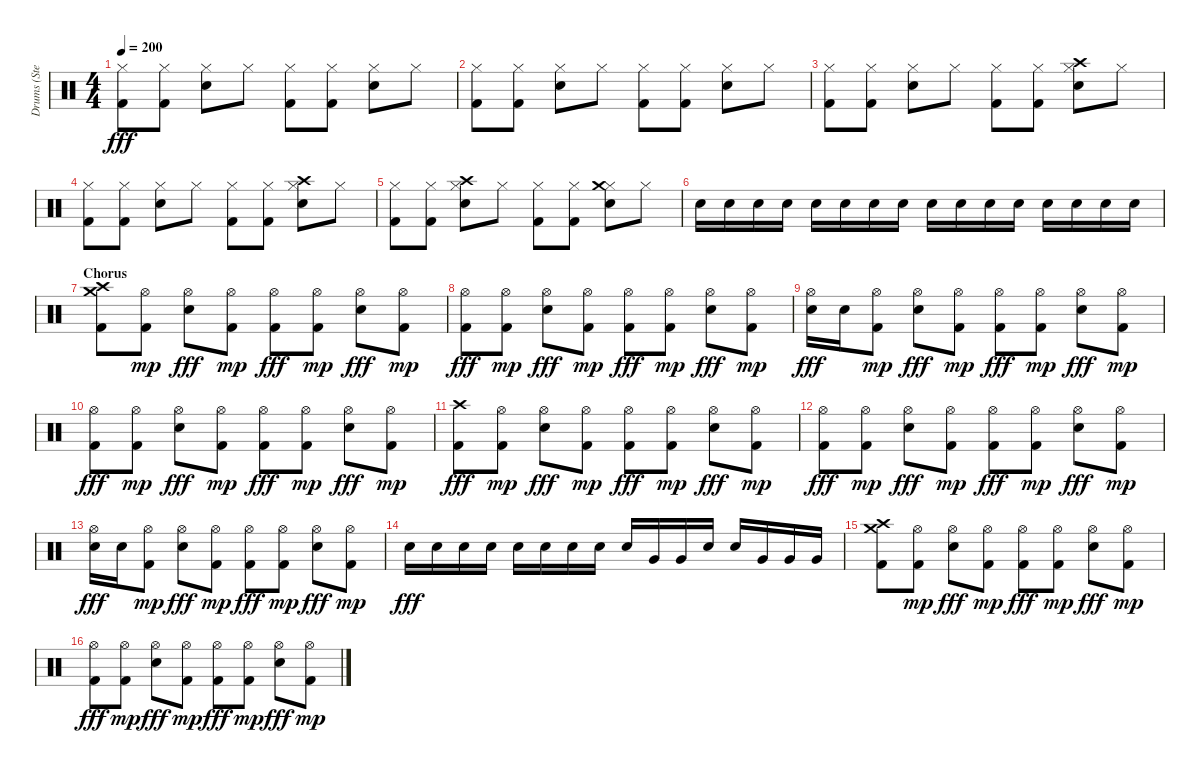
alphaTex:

\track ("Drums (Stevo32)" "Drums (Ste") {instrument percussion}
\staff {score}
\articulation defaults
\ts (4 4)
\tempo 200
\clef neutral
\ks c
("Kick (hit) 2" "Hi-Hat (closed)").8{dy fff} ("Kick (hit) 2" "Hi-Hat (closed)").8 ("Electric Snare (hit)" "Hi-Hat (closed)").8 "Hi-Hat (closed)".8 ("Kick (hit) 2" "Hi-Hat (closed)").8 ("Kick (hit) 2" "Hi-Hat (closed)").8 ("Electric Snare (hit)" "Hi-Hat (closed)").8 "Hi-Hat (closed)".8 |
("Kick (hit) 2" "Hi-Hat (closed)").8 ("Kick (hit) 2" "Hi-Hat (closed)").8 ("Electric Snare (hit)" "Hi-Hat (closed)").8 "Hi-Hat (closed)".8 ("Kick (hit) 2" "Hi-Hat (closed)").8 ("Kick (hit) 2" "Hi-Hat (closed)").8 ("Electric Snare (hit)" "Hi-Hat (closed)").8 "Hi-Hat (closed)".8 |
("Kick (hit) 2" "Hi-Hat (closed)").8 ("Kick (hit) 2" "Hi-Hat (closed)").8 ("Electric Snare (hit)" "Hi-Hat (closed)").8 "Hi-Hat (closed)".8 ("Kick (hit) 2" "Hi-Hat (closed)").8 ("Kick (hit) 2" "Hi-Hat (closed)").8 ("Electric Snare (hit)" "Hi-Hat (closed)" "Crash high (hit)").8 "Hi-Hat (closed)".8 |
("Kick (hit) 2" "Hi-Hat (closed)").8 ("Kick (hit) 2" "Hi-Hat (closed)").8 ("Electric Snare (hit)" "Hi-Hat (closed)").8 "Hi-Hat (closed)".8 ("Kick (hit) 2" "Hi-Hat (closed)").8 ("Kick (hit) 2" "Hi-Hat (closed)").8 ("Electric Snare (hit)" "Hi-Hat (closed)" "Crash high (hit)").8 "Hi-Hat (closed)".8 |
("Kick (hit) 2" "Hi-Hat (closed)").8 ("Kick (hit) 2" "Hi-Hat (closed)").8 ("Electric Snare (hit)" "Hi-Hat (closed)" "Crash high (hit)").8 "Hi-Hat (closed)".8 ("Kick (hit) 2" "Hi-Hat (closed)").8 ("Kick (hit) 2" "Hi-Hat (closed)").8 ("Electric Snare (hit)" "Hi-Hat (closed)" "Crash medium (hit)").8 "Hi-Hat (closed)".8 |
"Electric Snare (hit)".16 "Electric Snare (hit)".16 "Electric Snare (hit)".16 "Electric Snare (hit)".16 "Electric Snare (hit)".16 "Electric Snare (hit)".16 "Electric Snare (hit)".16 "Electric Snare (hit)".16 "Electric Snare (hit)".16 "Electric Snare (hit)".16 "Electric Snare (hit)".16 "Electric Snare (hit)".16 "Electric Snare (hit)".16 "Electric Snare (hit)".16 "Electric Snare (hit)".16 "Electric Snare (hit)".16 |
\section ("" "Chorus")
("Kick (hit) 2" "Crash high (hit)" "Crash medium (hit)").8 ("Kick (hit) 2" "Hi-Hat (open)").8{dy mp} ("Electric Snare (hit)" "Hi-Hat (open)").8{dy fff} ("Kick (hit) 2" "Hi-Hat (open)").8{dy mp} ("Kick (hit) 2" "Hi-Hat (open)").8{dy fff} ("Kick (hit) 2" "Hi-Hat (open)").8{dy mp} ("Electric Snare (hit)" "Hi-Hat (open)").8{dy fff} ("Kick (hit) 2" "Hi-Hat (open)").8{dy mp} |
("Kick (hit) 2" "Hi-Hat (open)").8{dy fff} ("Kick (hit) 2" "Hi-Hat (open)").8{dy mp} ("Electric Snare (hit)" "Hi-Hat (open)").8{dy fff} ("Kick (hit) 2" "Hi-Hat (open)").8{dy mp} ("Kick (hit) 2" "Hi-Hat (open)").8{dy fff} ("Kick (hit) 2" "Hi-Hat (open)").8{dy mp} ("Electric Snare (hit)" "Hi-Hat (open)").8{dy fff} ("Kick (hit) 2" "Hi-Hat (open)").8{dy mp} |
("Electric Snare (hit)" "Hi-Hat (open)").16{dy fff} "Electric Snare (hit)".16 ("Kick (hit) 2" "Hi-Hat (open)").8{dy mp} ("Electric Snare (hit)" "Hi-Hat (open)").8{dy fff} ("Kick (hit) 2" "Hi-Hat (open)").8{dy mp} ("Kick (hit) 2" "Hi-Hat (open)").8{dy fff} ("Kick (hit) 2" "Hi-Hat (open)").8{dy mp} ("Electric Snare (hit)" "Hi-Hat (open)").8{dy fff} ("Kick (hit) 2" "Hi-Hat (open)").8{dy mp} |
("Kick (hit) 2" "Hi-Hat (open)").8{dy fff} ("Kick (hit) 2" "Hi-Hat (open)").8{dy mp} ("Electric Snare (hit)" "Hi-Hat (open)").8{dy fff} ("Kick (hit) 2" "Hi-Hat (open)").8{dy mp} ("Kick (hit) 2" "Hi-Hat (open)").8{dy fff} ("Kick (hit) 2" "Hi-Hat (open)").8{dy mp} ("Electric Snare (hit)" "Hi-Hat (open)").8{dy fff} ("Kick (hit) 2" "Hi-Hat (open)").8{dy mp} |
("Kick (hit) 2" "Crash high (hit)").8{dy fff} ("Kick (hit) 2" "Hi-Hat (open)").8{dy mp} ("Electric Snare (hit)" "Hi-Hat (open)").8{dy fff} ("Kick (hit) 2" "Hi-Hat (open)").8{dy mp} ("Kick (hit) 2" "Hi-Hat (open)").8{dy fff} ("Kick (hit) 2" "Hi-Hat (open)").8{dy mp} ("Electric Snare (hit)" "Hi-Hat (open)").8{dy fff} ("Kick (hit) 2" "Hi-Hat (open)").8{dy mp} |
("Kick (hit) 2" "Hi-Hat (open)").8{dy fff} ("Kick (hit) 2" "Hi-Hat (open)").8{dy mp} ("Electric Snare (hit)" "Hi-Hat (open)").8{dy fff} ("Kick (hit) 2" "Hi-Hat (open)").8{dy mp} ("Kick (hit) 2" "Hi-Hat (open)").8{dy fff} ("Kick (hit) 2" "Hi-Hat (open)").8{dy mp} ("Electric Snare (hit)" "Hi-Hat (open)").8{dy fff} ("Kick (hit) 2" "Hi-Hat (open)").8{dy mp} |
("Electric Snare (hit)" "Hi-Hat (open)").16{dy fff} "Electric Snare (hit)".16 ("Kick (hit) 2" "Hi-Hat (open)").8{dy mp} ("Electric Snare (hit)" "Hi-Hat (open)").8{dy fff} ("Kick (hit) 2" "Hi-Hat (open)").8{dy mp} ("Kick (hit) 2" "Hi-Hat (open)").8{dy fff} ("Kick (hit) 2" "Hi-Hat (open)").8{dy mp} ("Electric Snare (hit)" "Hi-Hat (open)").8{dy fff} ("Kick (hit) 2" "Hi-Hat (open)").8{dy mp} |
"Electric Snare (hit)".16{dy fff} "Electric Snare (hit)".16 "Electric Snare (hit)".16 "Electric Snare (hit)".16 "Electric Snare (hit)".16 "Electric Snare (hit)".16 "Electric Snare (hit)".16 "Electric Snare (hit)".16 "Electric Snare (hit)".16 "Very Low Tom (hit)".16 "Very Low Tom (hit)".16 "Electric Snare (hit)".16 "Electric Snare (hit)".16 "Very Low Tom (hit)".16 "Very Low Tom (hit)".16 "Very Low Tom (hit)".16 |
("Kick (hit) 2" "Crash high (hit)" "Crash medium (hit)").8 ("Kick (hit) 2" "Hi-Hat (open)").8{dy mp} ("Electric Snare (hit)" "Hi-Hat (open)").8{dy fff} ("Kick (hit) 2" "Hi-Hat (open)").8{dy mp} ("Kick (hit) 2" "Hi-Hat (open)").8{dy fff} ("Kick (hit) 2" "Hi-Hat (open)").8{dy mp} ("Electric Snare (hit)" "Hi-Hat (open)").8{dy fff} ("Kick (hit) 2" "Hi-Hat (open)").8{dy mp} |
("Kick (hit) 2" "Hi-Hat (open)").8{dy fff} ("Kick (hit) 2" "Hi-Hat (open)").8{dy mp} ("Electric Snare (hit)" "Hi-Hat (open)").8{dy fff} ("Kick (hit) 2" "Hi-Hat (open)").8{dy mp} ("Kick (hit) 2" "Hi-Hat (open)").8{dy fff} ("Kick (hit) 2" "Hi-Hat (open)").8{dy mp} ("Electric Snare (hit)" "Hi-Hat (open)").8{dy fff} ("Kick (hit) 2" "Hi-Hat (open)").8{dy mp}
